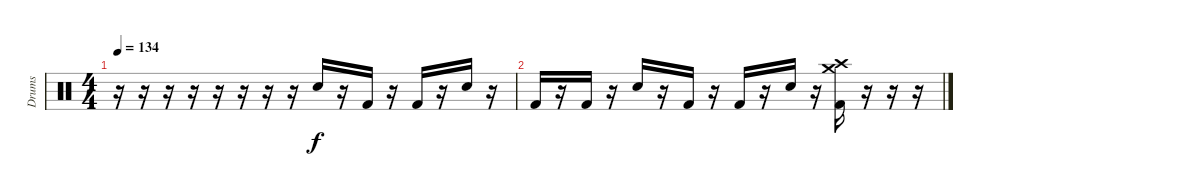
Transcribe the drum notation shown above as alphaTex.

\track ("Drums" "Drums") {instrument percussion}
\staff {score}
\articulation defaults
\ts (4 4)
\tempo 134
\clef neutral
\ks c
r.16{dy f} r.16 r.16 r.16 r.16 r.16 r.16 r.16 "Snare (hit) 2".16 r.16 "Kick (hit) 2".16 r.16 "Kick (hit) 2".16 r.16 "Snare (hit) 2".16 r.16 |
"Kick (hit) 2".16 r.16 "Kick (hit) 2".16 r.16 "Snare (hit) 2".16 r.16 "Kick (hit) 2".16 r.16 "Kick (hit) 2".16 r.16 "Snare (hit) 2".16 r.16 ("Crash medium (hit)" "Crash high (hit)" "Kick (hit) 2").16 r.16 r.16 r.16
